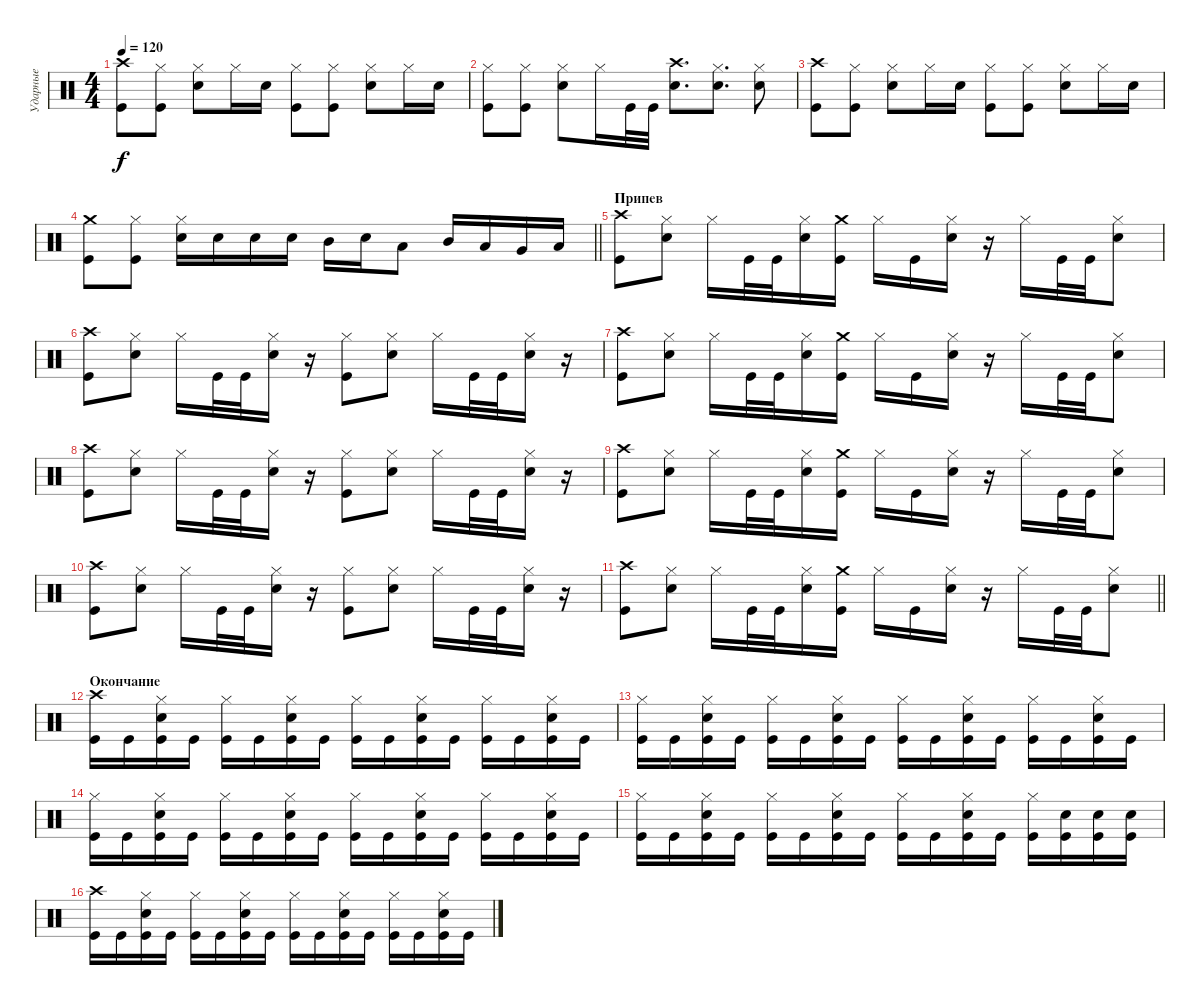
\track ("Ударные" "Ударные") {instrument percussion}
\staff {score}
\articulation defaults
\ts (4 4)
\tempo 120
\clef neutral
\ks c
("Crash high (hit)" "Kick (hit)").8{dy f} ("Hi-Hat (closed)" "Kick (hit)").8 ("Hi-Hat (closed)" "Snare (hit) 2").8 "Hi-Hat (closed)".16 "Snare (hit) 2".16 ("Hi-Hat (closed)" "Kick (hit)").8 ("Hi-Hat (closed)" "Kick (hit)").8 ("Hi-Hat (closed)" "Snare (hit) 2").8 "Hi-Hat (closed)".16 "Snare (hit) 2".16 |
("Hi-Hat (closed)" "Kick (hit)").8 ("Hi-Hat (closed)" "Kick (hit)").8 ("Hi-Hat (closed)" "Snare (hit) 2").8 "Hi-Hat (closed)".16 "Kick (hit)".32 "Kick (hit)".32 ("Crash high (hit)" "Snare (hit) 2").8{d} ("Hi-Hat (closed)" "Snare (hit) 2").8{d} ("Hi-Hat (closed)" "Snare (hit) 2").8 |
("Crash high (hit)" "Kick (hit)").8 ("Hi-Hat (closed)" "Kick (hit)").8 ("Hi-Hat (closed)" "Snare (hit) 2").8 "Hi-Hat (closed)".16 "Snare (hit) 2".16 ("Hi-Hat (closed)" "Kick (hit)").8 ("Hi-Hat (closed)" "Kick (hit)").8 ("Hi-Hat (closed)" "Snare (hit) 2").8 "Hi-Hat (closed)".16 "Snare (hit) 2".16 |
\barLineRight lightlight
("Crash medium (hit)" "Kick (hit)").8 ("Hi-Hat (closed)" "Kick (hit)").8 ("Hi-Hat (closed)" "Snare (hit) 2").16 "Snare (hit) 2".16 "Snare (hit) 2".16 "Snare (hit) 2".16 "Mid Tom (hit)".16 "Snare (hit) 2".16 "Low Tom (hit)".8 "Mid Tom (hit)".16 "Low Tom (hit)".16 "Very Low Tom (hit)".16 "Low Floor Tom (hit)".16 |
\section ("" "Припев")
("Crash high (hit)" "Kick (hit)").8 ("Hi-Hat (closed)" "Snare (hit) 2").8 "Hi-Hat (closed)".16 "Kick (hit)".32 "Kick (hit)".32 ("Hi-Hat (closed)" "Snare (hit) 2").16 ("Crash medium (hit)" "Kick (hit)").16 "Hi-Hat (closed)".16 "Kick (hit)".16 ("Hi-Hat (closed)" "Snare (hit) 2").16 r.16 "Hi-Hat (closed)".16 "Kick (hit)".32 "Kick (hit)".32 ("Hi-Hat (closed)" "Snare (hit) 2").8 |
("Crash high (hit)" "Kick (hit)").8 ("Hi-Hat (closed)" "Snare (hit) 2").8 "Hi-Hat (closed)".16 "Kick (hit)".32 "Kick (hit)".32 ("Hi-Hat (closed)" "Snare (hit) 2").16 r.16 ("Hi-Hat (closed)" "Kick (hit)").8 ("Hi-Hat (closed)" "Snare (hit) 2").8 "Hi-Hat (closed)".16 "Kick (hit)".32 "Kick (hit)".32 ("Hi-Hat (closed)" "Snare (hit) 2").16 r.16 |
("Crash high (hit)" "Kick (hit)").8 ("Hi-Hat (closed)" "Snare (hit) 2").8 "Hi-Hat (closed)".16 "Kick (hit)".32 "Kick (hit)".32 ("Hi-Hat (closed)" "Snare (hit) 2").16 ("Crash medium (hit)" "Kick (hit)").16 "Hi-Hat (closed)".16 "Kick (hit)".16 ("Hi-Hat (closed)" "Snare (hit) 2").16 r.16 "Hi-Hat (closed)".16 "Kick (hit)".32 "Kick (hit)".32 ("Hi-Hat (closed)" "Snare (hit) 2").8 |
("Crash high (hit)" "Kick (hit)").8 ("Hi-Hat (closed)" "Snare (hit) 2").8 "Hi-Hat (closed)".16 "Kick (hit)".32 "Kick (hit)".32 ("Hi-Hat (closed)" "Snare (hit) 2").16 r.16 ("Hi-Hat (closed)" "Kick (hit)").8 ("Hi-Hat (closed)" "Snare (hit) 2").8 "Hi-Hat (closed)".16 "Kick (hit)".32 "Kick (hit)".32 ("Hi-Hat (closed)" "Snare (hit) 2").16 r.16 |
("Crash high (hit)" "Kick (hit)").8 ("Hi-Hat (closed)" "Snare (hit) 2").8 "Hi-Hat (closed)".16 "Kick (hit)".32 "Kick (hit)".32 ("Hi-Hat (closed)" "Snare (hit) 2").16 ("Crash medium (hit)" "Kick (hit)").16 "Hi-Hat (closed)".16 "Kick (hit)".16 ("Hi-Hat (closed)" "Snare (hit) 2").16 r.16 "Hi-Hat (closed)".16 "Kick (hit)".32 "Kick (hit)".32 ("Hi-Hat (closed)" "Snare (hit) 2").8 |
("Crash high (hit)" "Kick (hit)").8 ("Hi-Hat (closed)" "Snare (hit) 2").8 "Hi-Hat (closed)".16 "Kick (hit)".32 "Kick (hit)".32 ("Hi-Hat (closed)" "Snare (hit) 2").16 r.16 ("Hi-Hat (closed)" "Kick (hit)").8 ("Hi-Hat (closed)" "Snare (hit) 2").8 "Hi-Hat (closed)".16 "Kick (hit)".32 "Kick (hit)".32 ("Hi-Hat (closed)" "Snare (hit) 2").16 r.16 |
\barLineRight lightlight
("Crash high (hit)" "Kick (hit)").8 ("Hi-Hat (closed)" "Snare (hit) 2").8 "Hi-Hat (closed)".16 "Kick (hit)".32 "Kick (hit)".32 ("Hi-Hat (closed)" "Snare (hit) 2").16 ("Crash medium (hit)" "Kick (hit)").16 "Hi-Hat (closed)".16 "Kick (hit)".16 ("Hi-Hat (closed)" "Snare (hit) 2").16 r.16 "Hi-Hat (closed)".16 "Kick (hit)".32 "Kick (hit)".32 ("Hi-Hat (closed)" "Snare (hit) 2").8 |
\section ("" "Окончание")
("Crash high (hit)" "Kick (hit)").16 "Kick (hit)".16 ("Hi-Hat (closed)" "Snare (hit) 2" "Kick (hit)").16 "Kick (hit)".16 ("Hi-Hat (closed)" "Kick (hit)").16 "Kick (hit)".16 ("Hi-Hat (closed)" "Snare (hit) 2" "Kick (hit)").16 "Kick (hit)".16 ("Hi-Hat (closed)" "Kick (hit)").16 "Kick (hit)".16 ("Hi-Hat (closed)" "Snare (hit) 2" "Kick (hit)").16 "Kick (hit)".16 ("Hi-Hat (closed)" "Kick (hit)").16 "Kick (hit)".16 ("Hi-Hat (closed)" "Snare (hit) 2" "Kick (hit)").16 "Kick (hit)".16 |
("Hi-Hat (closed)" "Kick (hit)").16 "Kick (hit)".16 ("Hi-Hat (closed)" "Snare (hit) 2" "Kick (hit)").16 "Kick (hit)".16 ("Hi-Hat (closed)" "Kick (hit)").16 "Kick (hit)".16 ("Hi-Hat (closed)" "Snare (hit) 2" "Kick (hit)").16 "Kick (hit)".16 ("Hi-Hat (closed)" "Kick (hit)").16 "Kick (hit)".16 ("Hi-Hat (closed)" "Snare (hit) 2" "Kick (hit)").16 "Kick (hit)".16 ("Hi-Hat (closed)" "Kick (hit)").16 "Kick (hit)".16 ("Hi-Hat (closed)" "Snare (hit) 2" "Kick (hit)").16 "Kick (hit)".16 |
("Hi-Hat (closed)" "Kick (hit)").16 "Kick (hit)".16 ("Hi-Hat (closed)" "Snare (hit) 2" "Kick (hit)").16 "Kick (hit)".16 ("Hi-Hat (closed)" "Kick (hit)").16 "Kick (hit)".16 ("Hi-Hat (closed)" "Snare (hit) 2" "Kick (hit)").16 "Kick (hit)".16 ("Hi-Hat (closed)" "Kick (hit)").16 "Kick (hit)".16 ("Hi-Hat (closed)" "Snare (hit) 2" "Kick (hit)").16 "Kick (hit)".16 ("Hi-Hat (closed)" "Kick (hit)").16 "Kick (hit)".16 ("Hi-Hat (closed)" "Snare (hit) 2" "Kick (hit)").16 "Kick (hit)".16 |
("Hi-Hat (closed)" "Kick (hit)").16 "Kick (hit)".16 ("Hi-Hat (closed)" "Snare (hit) 2" "Kick (hit)").16 "Kick (hit)".16 ("Hi-Hat (closed)" "Kick (hit)").16 "Kick (hit)".16 ("Hi-Hat (closed)" "Snare (hit) 2" "Kick (hit)").16 "Kick (hit)".16 ("Hi-Hat (closed)" "Kick (hit)").16 "Kick (hit)".16 ("Hi-Hat (closed)" "Snare (hit) 2" "Kick (hit)").16 "Kick (hit)".16 ("Hi-Hat (closed)" "Kick (hit)").16 ("Snare (hit) 2" "Kick (hit)").16 ("Snare (hit) 2" "Kick (hit)").16 ("Snare (hit) 2" "Kick (hit)").16 |
("Crash high (hit)" "Kick (hit)").16 "Kick (hit)".16 ("Hi-Hat (closed)" "Snare (hit) 2" "Kick (hit)").16 "Kick (hit)".16 ("Hi-Hat (closed)" "Kick (hit)").16 "Kick (hit)".16 ("Hi-Hat (closed)" "Snare (hit) 2" "Kick (hit)").16 "Kick (hit)".16 ("Hi-Hat (closed)" "Kick (hit)").16 "Kick (hit)".16 ("Hi-Hat (closed)" "Snare (hit) 2" "Kick (hit)").16 "Kick (hit)".16 ("Hi-Hat (closed)" "Kick (hit)").16 "Kick (hit)".16 ("Hi-Hat (closed)" "Snare (hit) 2" "Kick (hit)").16 "Kick (hit)".16
